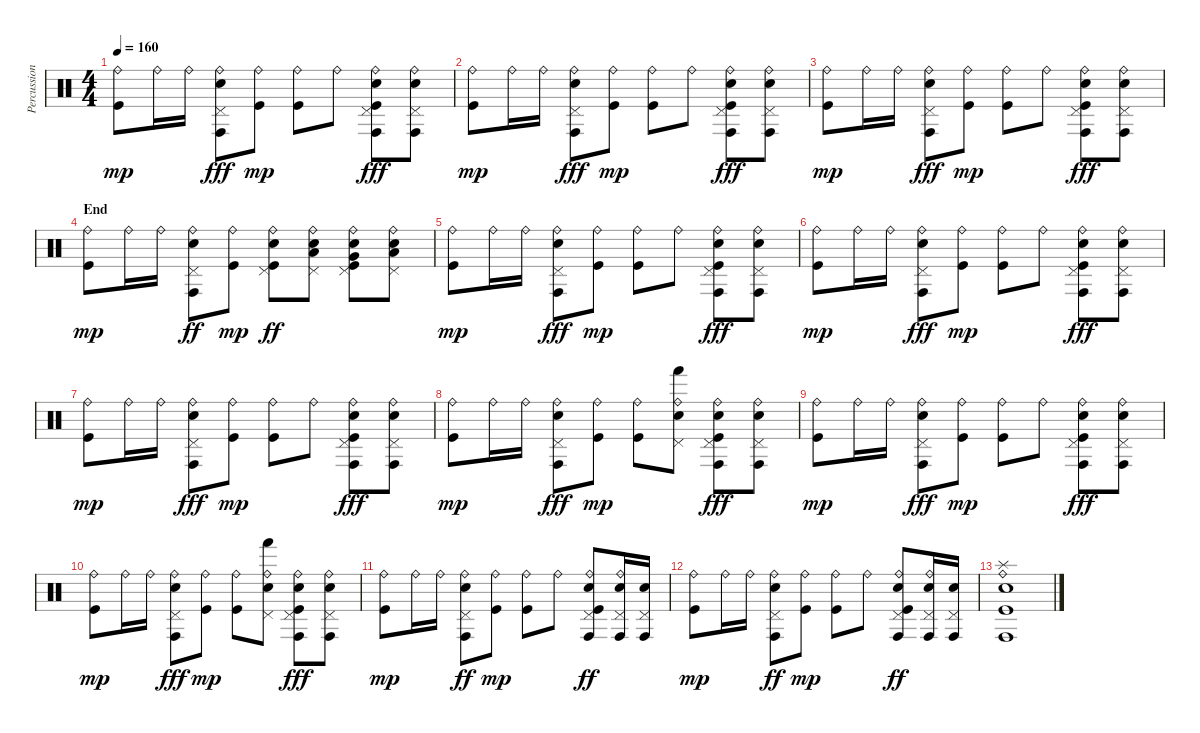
\track ("Percussion" "Percussion") {instrument percussion}
\staff {score}
\articulation defaults
\ts (4 4)
\tempo 160
\clef neutral
\ks c
("Ride (bell)" "Kick (hit)").8{dy mp} "Ride (bell)".16 "Ride (bell)".16 ("Ride (bell)" "Pedal Hi-Hat (hit)" "Conga high (hit)" "Electric Snare (hit)").8{dy fff} ("Ride (bell)" "Kick (hit)").8{dy mp} ("Ride (bell)" "Kick (hit)").8 "Ride (bell)".8 ("Ride (bell)" "Pedal Hi-Hat (hit)" "Conga high (hit)" "Electric Snare (hit)" "Kick (hit)").8{dy fff} ("Ride (bell)" "Pedal Hi-Hat (hit)" "Conga high (hit)" "Electric Snare (hit)").8 |
("Ride (bell)" "Kick (hit)").8{dy mp} "Ride (bell)".16 "Ride (bell)".16 ("Ride (bell)" "Pedal Hi-Hat (hit)" "Conga high (hit)" "Electric Snare (hit)").8{dy fff} ("Ride (bell)" "Kick (hit)").8{dy mp} ("Ride (bell)" "Kick (hit)").8 "Ride (bell)".8 ("Ride (bell)" "Pedal Hi-Hat (hit)" "Conga high (hit)" "Electric Snare (hit)" "Kick (hit)").8{dy fff} ("Ride (bell)" "Pedal Hi-Hat (hit)" "Conga high (hit)" "Electric Snare (hit)").8 |
("Ride (bell)" "Kick (hit)").8{dy mp} "Ride (bell)".16 "Ride (bell)".16 ("Ride (bell)" "Pedal Hi-Hat (hit)" "Conga high (hit)" "Electric Snare (hit)").8{dy fff} ("Ride (bell)" "Kick (hit)").8{dy mp} ("Ride (bell)" "Kick (hit)").8 "Ride (bell)".8 ("Ride (bell)" "Pedal Hi-Hat (hit)" "Conga high (hit)" "Electric Snare (hit)" "Kick (hit)").8{dy fff} ("Ride (bell)" "Pedal Hi-Hat (hit)" "Conga high (hit)" "Electric Snare (hit)").8 |
\section ("" "End")
("Ride (bell)" "Kick (hit)").8{dy mp} "Ride (bell)".16 "Ride (bell)".16 ("Ride (bell)" "Pedal Hi-Hat (hit)" "Conga high (hit)" "Electric Snare (hit)").8{dy ff} ("Ride (bell)" "Kick (hit)").8{dy mp} ("Ride (bell)" "Pedal Hi-Hat (hit)" "Electric Snare (hit)" "Kick (hit)").8{dy ff} ("Ride (bell)" "Pedal Hi-Hat (hit)" "Low Tom (hit)" "Electric Snare (hit)").8 ("Ride (bell)" "Pedal Hi-Hat (hit)" "Very Low Tom (hit)" "Electric Snare (hit)" "Kick (hit)").8 ("Ride (bell)" "Pedal Hi-Hat (hit)" "Low Floor Tom (hit)" "Electric Snare (hit)").8 |
("Ride (bell)" "Kick (hit)").8{dy mp} "Ride (bell)".16 "Ride (bell)".16 ("Ride (bell)" "Pedal Hi-Hat (hit)" "Conga high (hit)" "Electric Snare (hit)").8{dy fff} ("Ride (bell)" "Kick (hit)").8{dy mp} ("Ride (bell)" "Kick (hit)").8 "Ride (bell)".8 ("Ride (bell)" "Pedal Hi-Hat (hit)" "Conga high (hit)" "Electric Snare (hit)" "Kick (hit)").8{dy fff} ("Ride (bell)" "Pedal Hi-Hat (hit)" "Conga high (hit)" "Electric Snare (hit)").8 |
("Ride (bell)" "Kick (hit)").8{dy mp} "Ride (bell)".16 "Ride (bell)".16 ("Ride (bell)" "Pedal Hi-Hat (hit)" "Conga high (hit)" "Electric Snare (hit)").8{dy fff} ("Ride (bell)" "Kick (hit)").8{dy mp} ("Ride (bell)" "Kick (hit)").8 "Ride (bell)".8 ("Ride (bell)" "Pedal Hi-Hat (hit)" "Conga high (hit)" "Electric Snare (hit)" "Kick (hit)").8{dy fff} ("Ride (bell)" "Pedal Hi-Hat (hit)" "Conga high (hit)" "Electric Snare (hit)").8 |
("Ride (bell)" "Kick (hit)").8{dy mp} "Ride (bell)".16 "Ride (bell)".16 ("Ride (bell)" "Pedal Hi-Hat (hit)" "Conga high (hit)" "Electric Snare (hit)").8{dy fff} ("Ride (bell)" "Kick (hit)").8{dy mp} ("Ride (bell)" "Kick (hit)").8 "Ride (bell)".8 ("Ride (bell)" "Pedal Hi-Hat (hit)" "Conga high (hit)" "Electric Snare (hit)" "Kick (hit)").8{dy fff} ("Ride (bell)" "Pedal Hi-Hat (hit)" "Conga high (hit)" "Electric Snare (hit)").8 |
("Ride (bell)" "Kick (hit)").8{dy mp} "Ride (bell)".16 "Ride (bell)".16 ("Ride (bell)" "Pedal Hi-Hat (hit)" "Conga high (hit)" "Electric Snare (hit)").8{dy fff} ("Ride (bell)" "Kick (hit)").8{dy mp} ("Ride (bell)" "Kick (hit)").8 ("Ride (bell)" "Pedal Hi-Hat (hit)" "Hand (hit)" "Electric Snare (hit)").8 ("Ride (bell)" "Pedal Hi-Hat (hit)" "Conga high (hit)" "Electric Snare (hit)" "Kick (hit)").8{dy fff} ("Ride (bell)" "Pedal Hi-Hat (hit)" "Conga high (hit)" "Electric Snare (hit)").8 |
("Ride (bell)" "Kick (hit)").8{dy mp} "Ride (bell)".16 "Ride (bell)".16 ("Ride (bell)" "Pedal Hi-Hat (hit)" "Conga high (hit)" "Electric Snare (hit)").8{dy fff} ("Ride (bell)" "Kick (hit)").8{dy mp} ("Ride (bell)" "Kick (hit)").8 "Ride (bell)".8 ("Ride (bell)" "Pedal Hi-Hat (hit)" "Conga high (hit)" "Electric Snare (hit)" "Kick (hit)").8{dy fff} ("Ride (bell)" "Pedal Hi-Hat (hit)" "Conga high (hit)" "Electric Snare (hit)").8 |
("Ride (bell)" "Kick (hit)").8{dy mp} "Ride (bell)".16 "Ride (bell)".16 ("Ride (bell)" "Pedal Hi-Hat (hit)" "Conga high (hit)" "Electric Snare (hit)").8{dy fff} ("Ride (bell)" "Kick (hit)").8{dy mp} ("Ride (bell)" "Kick (hit)").8 ("Ride (bell)" "Pedal Hi-Hat (hit)" "Hand (hit)" "Electric Snare (hit)").8 ("Ride (bell)" "Pedal Hi-Hat (hit)" "Conga high (hit)" "Electric Snare (hit)" "Kick (hit)").8{dy fff} ("Ride (bell)" "Pedal Hi-Hat (hit)" "Conga high (hit)" "Electric Snare (hit)").8 |
("Ride (bell)" "Kick (hit)").8{dy mp} "Ride (bell)".16 "Ride (bell)".16 ("Ride (bell)" "Pedal Hi-Hat (hit)" "Conga high (hit)" "Electric Snare (hit)").8{dy ff} ("Ride (bell)" "Kick (hit)").8{dy mp} ("Ride (bell)" "Kick (hit)").8 "Ride (bell)".8 ("Ride (bell)" "Pedal Hi-Hat (hit)" "Conga high (hit)" "Electric Snare (hit)" "Kick (hit)").8{dy ff} ("Ride (bell)" "Pedal Hi-Hat (hit)" "Conga high (hit)" "Electric Snare (hit)").16 ("Pedal Hi-Hat (hit)" "Conga high (hit)" "Electric Snare (hit)").16 |
("Ride (bell)" "Kick (hit)").8{dy mp} "Ride (bell)".16 "Ride (bell)".16 ("Ride (bell)" "Pedal Hi-Hat (hit)" "Conga high (hit)" "Electric Snare (hit)").8{dy ff} ("Ride (bell)" "Kick (hit)").8{dy mp} ("Ride (bell)" "Kick (hit)").8 "Ride (bell)".8 ("Ride (bell)" "Pedal Hi-Hat (hit)" "Conga high (hit)" "Electric Snare (hit)" "Kick (hit)").8{dy ff} ("Ride (bell)" "Pedal Hi-Hat (hit)" "Conga high (hit)" "Electric Snare (hit)").16 ("Pedal Hi-Hat (hit)" "Conga high (hit)" "Electric Snare (hit)").16 |
("Ride (bell)" "Splash (hit)" "Conga high (hit)" "Electric Snare (hit)" "Kick (hit)").1
